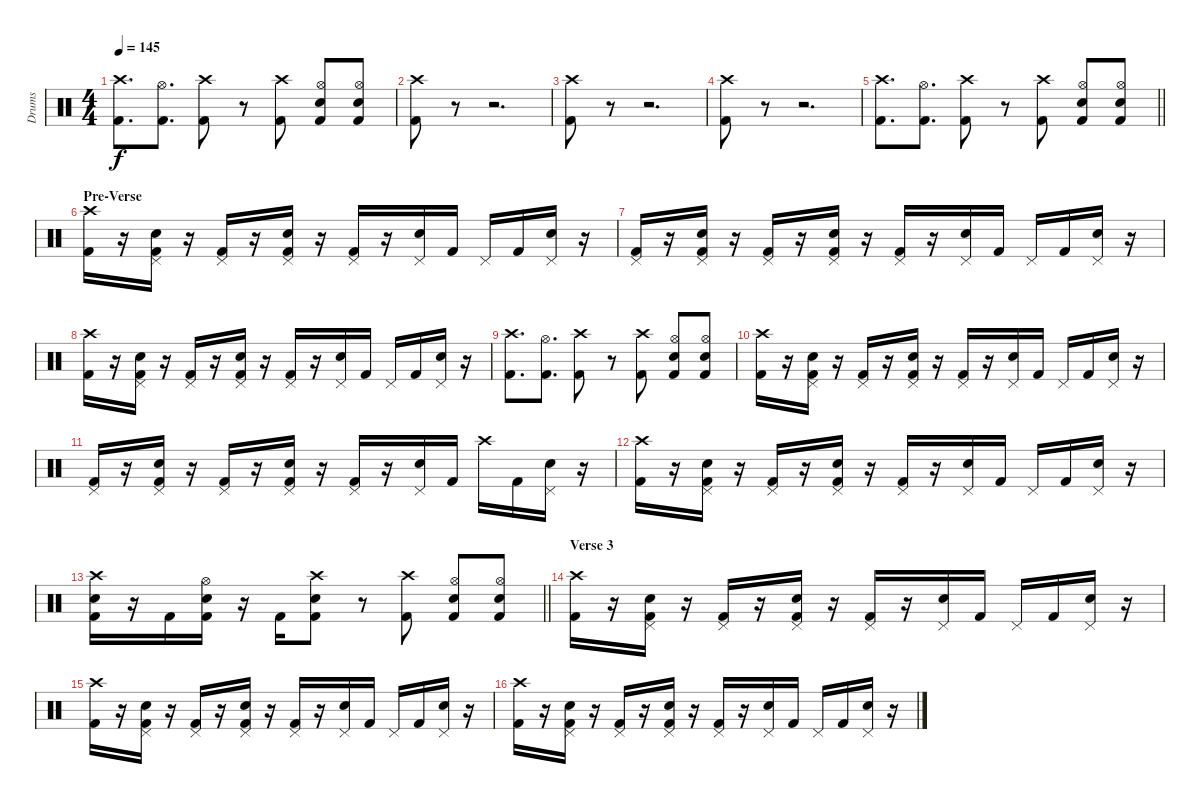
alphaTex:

\track ("Drums" "Drums") {instrument percussion}
\staff {score}
\articulation defaults
\ts (4 4)
\tempo 145
\clef neutral
\ks c
("Crash high (hit)" "Kick (hit) 2").8{d dy f} ("Hi-Hat (open)" "Kick (hit) 2").8{d} ("Crash high (hit)" "Kick (hit) 2").8 r.8 ("Crash high (hit)" "Kick (hit) 2").8 ("Hi-Hat (open)" "Snare (hit) 2" "Kick (hit) 2").8 ("Hi-Hat (open)" "Snare (hit) 2" "Kick (hit) 2").8 |
("Crash high (hit)" "Kick (hit) 2").8 r.8 r.2{d} |
("Crash high (hit)" "Kick (hit) 2").8 r.8 r.2{d} |
("Crash high (hit)" "Kick (hit) 2").8 r.8 r.2{d} |
\barLineRight lightlight
("Crash high (hit)" "Kick (hit) 2").8{d} ("Hi-Hat (open)" "Kick (hit) 2").8{d} ("Crash high (hit)" "Kick (hit) 2").8 r.8 ("Crash high (hit)" "Kick (hit) 2").8 ("Hi-Hat (open)" "Snare (hit) 2" "Kick (hit) 2").8 ("Hi-Hat (open)" "Snare (hit) 2" "Kick (hit) 2").8 |
\section ("" "Pre-Verse")
("Crash high (hit)" "Kick (hit) 2").16 r.16 ("Pedal Hi-Hat (hit)" "Snare (hit) 2" "Kick (hit) 2").16 r.16 ("Pedal Hi-Hat (hit)" "Kick (hit) 2").16 r.16 ("Pedal Hi-Hat (hit)" "Snare (hit) 2" "Kick (hit) 2").16 r.16 ("Pedal Hi-Hat (hit)" "Kick (hit) 2").16 r.16 ("Pedal Hi-Hat (hit)" "Snare (hit) 2").16 "Kick (hit) 2".16 "Pedal Hi-Hat (hit)".16 "Kick (hit) 2".16 ("Pedal Hi-Hat (hit)" "Snare (hit) 2").16 r.16 |
("Pedal Hi-Hat (hit)" "Kick (hit) 2").16 r.16 ("Pedal Hi-Hat (hit)" "Snare (hit) 2" "Kick (hit) 2").16 r.16 ("Pedal Hi-Hat (hit)" "Kick (hit) 2").16 r.16 ("Pedal Hi-Hat (hit)" "Snare (hit) 2" "Kick (hit) 2").16 r.16 ("Pedal Hi-Hat (hit)" "Kick (hit) 2").16 r.16 ("Pedal Hi-Hat (hit)" "Snare (hit) 2").16 "Kick (hit) 2".16 "Pedal Hi-Hat (hit)".16 "Kick (hit) 2".16 ("Pedal Hi-Hat (hit)" "Snare (hit) 2").16 r.16 |
("Crash high (hit)" "Kick (hit) 2").16 r.16 ("Pedal Hi-Hat (hit)" "Snare (hit) 2" "Kick (hit) 2").16 r.16 ("Pedal Hi-Hat (hit)" "Kick (hit) 2").16 r.16 ("Pedal Hi-Hat (hit)" "Snare (hit) 2" "Kick (hit) 2").16 r.16 ("Pedal Hi-Hat (hit)" "Kick (hit) 2").16 r.16 ("Pedal Hi-Hat (hit)" "Snare (hit) 2").16 "Kick (hit) 2".16 "Pedal Hi-Hat (hit)".16 "Kick (hit) 2".16 ("Pedal Hi-Hat (hit)" "Snare (hit) 2").16 r.16 |
("Crash high (hit)" "Kick (hit) 2").8{d} ("Hi-Hat (open)" "Kick (hit) 2").8{d} ("Crash high (hit)" "Kick (hit) 2").8 r.8 ("Crash high (hit)" "Kick (hit) 2").8 ("Hi-Hat (open)" "Snare (hit) 2" "Kick (hit) 2").8 ("Hi-Hat (open)" "Snare (hit) 2" "Kick (hit) 2").8 |
("Crash high (hit)" "Kick (hit) 2").16 r.16 ("Pedal Hi-Hat (hit)" "Snare (hit) 2" "Kick (hit) 2").16 r.16 ("Pedal Hi-Hat (hit)" "Kick (hit) 2").16 r.16 ("Pedal Hi-Hat (hit)" "Snare (hit) 2" "Kick (hit) 2").16 r.16 ("Pedal Hi-Hat (hit)" "Kick (hit) 2").16 r.16 ("Pedal Hi-Hat (hit)" "Snare (hit) 2").16 "Kick (hit) 2".16 "Pedal Hi-Hat (hit)".16 "Kick (hit) 2".16 ("Pedal Hi-Hat (hit)" "Snare (hit) 2").16 r.16 |
("Pedal Hi-Hat (hit)" "Kick (hit) 2").16 r.16 ("Pedal Hi-Hat (hit)" "Snare (hit) 2" "Kick (hit) 2").16 r.16 ("Pedal Hi-Hat (hit)" "Kick (hit) 2").16 r.16 ("Pedal Hi-Hat (hit)" "Snare (hit) 2" "Kick (hit) 2").16 r.16 ("Pedal Hi-Hat (hit)" "Kick (hit) 2").16 r.16 ("Pedal Hi-Hat (hit)" "Snare (hit) 2").16 "Kick (hit) 2".16 "Crash high (hit)".16 "Kick (hit) 2".16 ("Pedal Hi-Hat (hit)" "Snare (hit) 2").16 r.16 |
("Crash high (hit)" "Kick (hit) 2").16 r.16 ("Pedal Hi-Hat (hit)" "Snare (hit) 2" "Kick (hit) 2").16 r.16 ("Pedal Hi-Hat (hit)" "Kick (hit) 2").16 r.16 ("Pedal Hi-Hat (hit)" "Snare (hit) 2" "Kick (hit) 2").16 r.16 ("Pedal Hi-Hat (hit)" "Kick (hit) 2").16 r.16 ("Pedal Hi-Hat (hit)" "Snare (hit) 2").16 "Kick (hit) 2".16 "Pedal Hi-Hat (hit)".16 "Kick (hit) 2".16 ("Pedal Hi-Hat (hit)" "Snare (hit) 2").16 r.16 |
\barLineRight lightlight
("Crash high (hit)" "Snare (hit) 2" "Kick (hit) 2").16 r.16 "Kick (hit) 2".16 ("Hi-Hat (open)" "Snare (hit) 2" "Kick (hit) 2").16 r.16 "Kick (hit) 2".16 ("Crash high (hit)" "Snare (hit) 2" "Kick (hit) 2").8 r.8 ("Crash high (hit)" "Kick (hit) 2").8 ("Hi-Hat (open)" "Snare (hit) 2" "Kick (hit) 2").8 ("Hi-Hat (open)" "Snare (hit) 2" "Kick (hit) 2").8 |
\section ("" "Verse 3")
("Crash high (hit)" "Kick (hit) 2").16 r.16 ("Pedal Hi-Hat (hit)" "Snare (hit) 2" "Kick (hit) 2").16 r.16 ("Pedal Hi-Hat (hit)" "Kick (hit) 2").16 r.16 ("Pedal Hi-Hat (hit)" "Snare (hit) 2" "Kick (hit) 2").16 r.16 ("Pedal Hi-Hat (hit)" "Kick (hit) 2").16 r.16 ("Pedal Hi-Hat (hit)" "Snare (hit) 2").16 "Kick (hit) 2".16 "Pedal Hi-Hat (hit)".16 "Kick (hit) 2".16 ("Pedal Hi-Hat (hit)" "Snare (hit) 2").16 r.16 |
("Crash high (hit)" "Kick (hit) 2").16 r.16 ("Pedal Hi-Hat (hit)" "Snare (hit) 2" "Kick (hit) 2").16 r.16 ("Pedal Hi-Hat (hit)" "Kick (hit) 2").16 r.16 ("Pedal Hi-Hat (hit)" "Snare (hit) 2" "Kick (hit) 2").16 r.16 ("Pedal Hi-Hat (hit)" "Kick (hit) 2").16 r.16 ("Pedal Hi-Hat (hit)" "Snare (hit) 2").16 "Kick (hit) 2".16 "Pedal Hi-Hat (hit)".16 "Kick (hit) 2".16 ("Pedal Hi-Hat (hit)" "Snare (hit) 2").16 r.16 |
("Crash high (hit)" "Kick (hit) 2").16 r.16 ("Pedal Hi-Hat (hit)" "Snare (hit) 2" "Kick (hit) 2").16 r.16 ("Pedal Hi-Hat (hit)" "Kick (hit) 2").16 r.16 ("Pedal Hi-Hat (hit)" "Snare (hit) 2" "Kick (hit) 2").16 r.16 ("Pedal Hi-Hat (hit)" "Kick (hit) 2").16 r.16 ("Pedal Hi-Hat (hit)" "Snare (hit) 2").16 "Kick (hit) 2".16 "Pedal Hi-Hat (hit)".16 "Kick (hit) 2".16 ("Pedal Hi-Hat (hit)" "Snare (hit) 2").16 r.16
